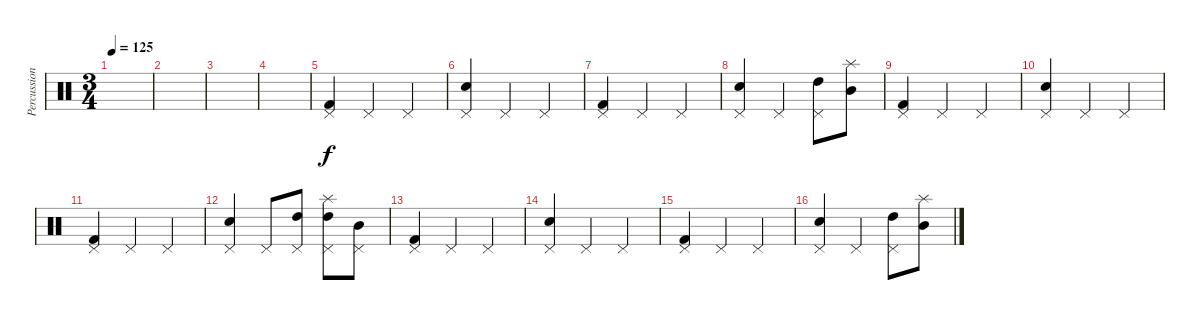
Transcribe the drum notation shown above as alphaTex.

\track ("Percussion" "Percussion") {instrument percussion}
\staff {score}
\articulation defaults
\ts (3 4)
\tempo 125
\clef neutral
\ks c
|
|
|
|
("Kick (hit) 2" "Pedal Hi-Hat (hit)").4 "Pedal Hi-Hat (hit)".4 "Pedal Hi-Hat (hit)".4 |
("Pedal Hi-Hat (hit)" "Snare (hit) 2").4 "Pedal Hi-Hat (hit)".4 "Pedal Hi-Hat (hit)".4 |
("Kick (hit) 2" "Pedal Hi-Hat (hit)").4 "Pedal Hi-Hat (hit)".4 "Pedal Hi-Hat (hit)".4 |
("Pedal Hi-Hat (hit)" "Snare (hit) 2").4 "Pedal Hi-Hat (hit)".4 ("Pedal Hi-Hat (hit)" "High Tom (hit)").8 ("Mid Tom (hit)" "Splash (hit)").8 |
("Kick (hit) 2" "Pedal Hi-Hat (hit)").4 "Pedal Hi-Hat (hit)".4 "Pedal Hi-Hat (hit)".4 |
("Pedal Hi-Hat (hit)" "Snare (hit) 2").4 "Pedal Hi-Hat (hit)".4 "Pedal Hi-Hat (hit)".4 |
("Kick (hit) 2" "Pedal Hi-Hat (hit)").4 "Pedal Hi-Hat (hit)".4 "Pedal Hi-Hat (hit)".4 |
("Pedal Hi-Hat (hit)" "Snare (hit) 2").4 "Pedal Hi-Hat (hit)".8 ("Pedal Hi-Hat (hit)" "High Tom (hit)").8 ("Pedal Hi-Hat (hit)" "High Tom (hit)" "Splash (hit)").8 ("Pedal Hi-Hat (hit)" "Mid Tom (hit)").8 |
("Kick (hit) 2" "Pedal Hi-Hat (hit)").4 "Pedal Hi-Hat (hit)".4 "Pedal Hi-Hat (hit)".4 |
("Pedal Hi-Hat (hit)" "Snare (hit) 2").4 "Pedal Hi-Hat (hit)".4 "Pedal Hi-Hat (hit)".4 |
("Kick (hit) 2" "Pedal Hi-Hat (hit)").4 "Pedal Hi-Hat (hit)".4 "Pedal Hi-Hat (hit)".4 |
("Pedal Hi-Hat (hit)" "Snare (hit) 2").4 "Pedal Hi-Hat (hit)".4 ("Pedal Hi-Hat (hit)" "High Tom (hit)").8 ("Mid Tom (hit)" "Splash (hit)").8
